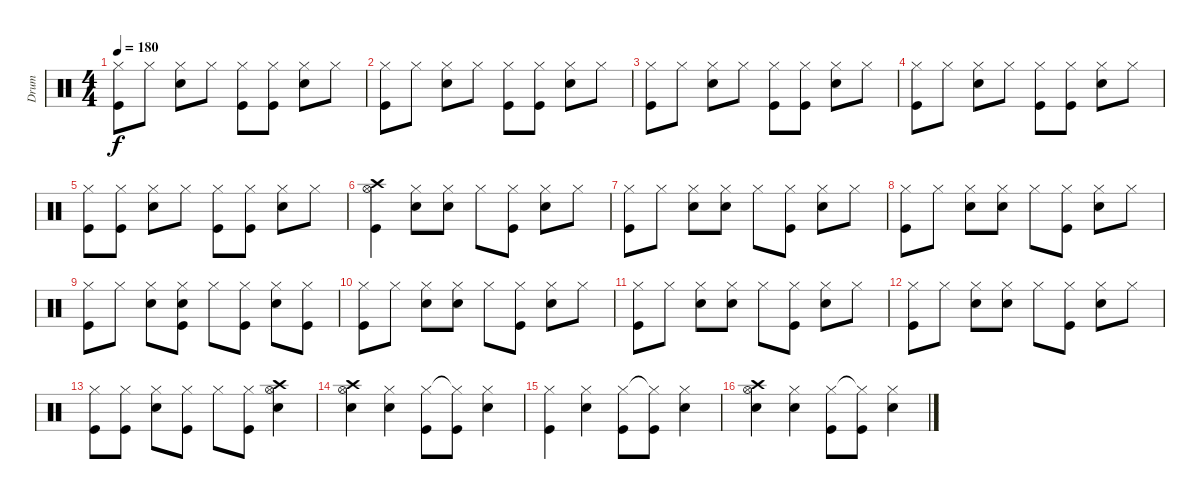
\track ("Drum" "Drum") {instrument percussion}
\staff {score}
\articulation defaults
\ts (4 4)
\tempo 180
\clef neutral
\ks c
("Hi-Hat (closed)" "Kick (hit)").8{dy f} "Hi-Hat (closed)".8 ("Hi-Hat (closed)" "Snare (hit) 2").8 "Hi-Hat (closed)".8 ("Hi-Hat (closed)" "Kick (hit)").8 ("Hi-Hat (closed)" "Kick (hit)").8 ("Hi-Hat (closed)" "Snare (hit) 2").8 "Hi-Hat (closed)".8 |
("Hi-Hat (closed)" "Kick (hit)").8 "Hi-Hat (closed)".8 ("Hi-Hat (closed)" "Snare (hit) 2").8 "Hi-Hat (closed)".8 ("Hi-Hat (closed)" "Kick (hit)").8 ("Hi-Hat (closed)" "Kick (hit)").8 ("Hi-Hat (closed)" "Snare (hit) 2").8 "Hi-Hat (closed)".8 |
("Hi-Hat (closed)" "Kick (hit)").8 "Hi-Hat (closed)".8 ("Hi-Hat (closed)" "Snare (hit) 2").8 "Hi-Hat (closed)".8 ("Hi-Hat (closed)" "Kick (hit)").8 ("Hi-Hat (closed)" "Kick (hit)").8 ("Hi-Hat (closed)" "Snare (hit) 2").8 "Hi-Hat (closed)".8 |
("Hi-Hat (closed)" "Kick (hit)").8 "Hi-Hat (closed)".8 ("Hi-Hat (closed)" "Snare (hit) 2").8 "Hi-Hat (closed)".8 ("Hi-Hat (closed)" "Kick (hit)").8 ("Hi-Hat (closed)" "Kick (hit)").8 ("Hi-Hat (closed)" "Snare (hit) 2").8 "Hi-Hat (closed)".8 |
("Hi-Hat (closed)" "Kick (hit)").8 ("Hi-Hat (closed)" "Kick (hit)").8 ("Hi-Hat (closed)" "Snare (hit) 2").8 "Hi-Hat (closed)".8 ("Hi-Hat (closed)" "Kick (hit)").8 ("Hi-Hat (closed)" "Kick (hit)").8 ("Hi-Hat (closed)" "Snare (hit) 2").8 "Hi-Hat (closed)".8 |
("Crash high (hit)" "Hi-Hat (open)" "Kick (hit)").4 ("Hi-Hat (closed)" "Snare (hit) 2").8 ("Hi-Hat (closed)" "Snare (hit) 2").8 "Hi-Hat (closed)".8 ("Hi-Hat (closed)" "Kick (hit)").8 ("Hi-Hat (closed)" "Snare (hit) 2").8 "Hi-Hat (closed)".8 |
("Hi-Hat (closed)" "Kick (hit)").8 "Hi-Hat (closed)".8 ("Hi-Hat (closed)" "Snare (hit) 2").8 ("Hi-Hat (closed)" "Snare (hit) 2").8 "Hi-Hat (closed)".8 ("Hi-Hat (closed)" "Kick (hit)").8 ("Hi-Hat (closed)" "Snare (hit) 2").8 "Hi-Hat (closed)".8 |
("Hi-Hat (closed)" "Kick (hit)").8 "Hi-Hat (closed)".8 ("Hi-Hat (closed)" "Snare (hit) 2").8 ("Hi-Hat (closed)" "Snare (hit) 2").8 "Hi-Hat (closed)".8 ("Hi-Hat (closed)" "Kick (hit)").8 ("Hi-Hat (closed)" "Snare (hit) 2").8 "Hi-Hat (closed)".8 |
("Hi-Hat (closed)" "Kick (hit)").8 "Hi-Hat (closed)".8 ("Hi-Hat (closed)" "Snare (hit) 2").8 ("Hi-Hat (closed)" "Snare (hit) 2" "Kick (hit)").8 "Hi-Hat (closed)".8 ("Hi-Hat (closed)" "Kick (hit)").8 ("Hi-Hat (closed)" "Snare (hit) 2").8 ("Hi-Hat (closed)" "Kick (hit)").8 |
("Hi-Hat (closed)" "Kick (hit)").8 "Hi-Hat (closed)".8 ("Hi-Hat (closed)" "Snare (hit) 2").8 ("Hi-Hat (closed)" "Snare (hit) 2").8 "Hi-Hat (closed)".8 ("Hi-Hat (closed)" "Kick (hit)").8 ("Hi-Hat (closed)" "Snare (hit) 2").8 "Hi-Hat (closed)".8 |
("Hi-Hat (closed)" "Kick (hit)").8 "Hi-Hat (closed)".8 ("Hi-Hat (closed)" "Snare (hit) 2").8 ("Hi-Hat (closed)" "Snare (hit) 2").8 "Hi-Hat (closed)".8 ("Hi-Hat (closed)" "Kick (hit)").8 ("Hi-Hat (closed)" "Snare (hit) 2").8 "Hi-Hat (closed)".8 |
("Hi-Hat (closed)" "Kick (hit)").8 "Hi-Hat (closed)".8 ("Hi-Hat (closed)" "Snare (hit) 2").8 ("Hi-Hat (closed)" "Snare (hit) 2").8 "Hi-Hat (closed)".8 ("Hi-Hat (closed)" "Kick (hit)").8 ("Hi-Hat (closed)" "Snare (hit) 2").8 "Hi-Hat (closed)".8 |
("Hi-Hat (closed)" "Kick (hit)").8 ("Hi-Hat (closed)" "Kick (hit)").8 ("Hi-Hat (closed)" "Snare (hit) 2").8 ("Hi-Hat (closed)" "Kick (hit)").8 "Hi-Hat (closed)".8 ("Hi-Hat (closed)" "Kick (hit)").8 ("Crash high (hit)" "Hi-Hat (open)" "Snare (hit) 2").4 |
("Crash high (hit)" "Hi-Hat (open)" "Snare (hit) 2").4 ("Hi-Hat (closed)" "Snare (hit) 2").4 ("Hi-Hat (closed)" "Kick (hit)").8 ("Hi-Hat (closed)"{t} "Kick (hit)").8 ("Hi-Hat (closed)" "Snare (hit) 2").4 |
("Hi-Hat (closed)" "Kick (hit)").4 ("Hi-Hat (closed)" "Snare (hit) 2").4 ("Hi-Hat (closed)" "Kick (hit)").8 ("Hi-Hat (closed)"{t} "Kick (hit)").8 ("Hi-Hat (closed)" "Snare (hit) 2").4 |
("Crash high (hit)" "Hi-Hat (open)" "Snare (hit) 2").4 ("Hi-Hat (closed)" "Snare (hit) 2").4 ("Hi-Hat (closed)" "Kick (hit)").8 ("Hi-Hat (closed)"{t} "Kick (hit)").8 ("Hi-Hat (closed)" "Snare (hit) 2").4
